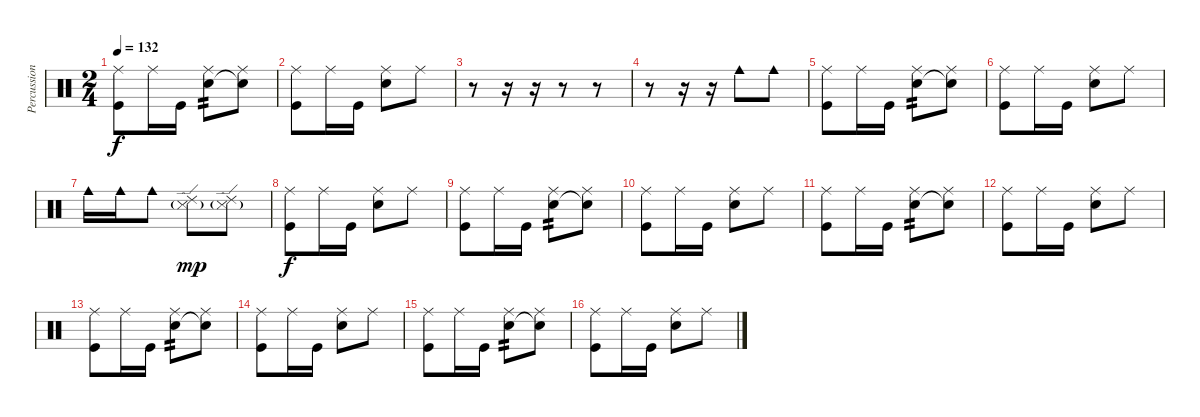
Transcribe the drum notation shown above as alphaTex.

\track ("Percussion" "Percussion") {instrument percussion}
\staff {score}
\articulation defaults
\ts (2 4)
\tempo 132
\clef neutral
\ks c
("Ride (middle)" "Kick (hit)").8{dy f} "Ride (middle)".16 "Kick (hit)".16 ("Ride (middle)" "Electric Snare (hit)").8{tp 2} ("Ride (middle)" "Snare (hit)"{t}).8 |
("Ride (middle)" "Kick (hit)").8 "Ride (middle)".16 "Kick (hit)".16 ("Ride (middle)" "Electric Snare (hit)").8 "Ride (middle)".8 |
r.8 r.16 r.16 r.8 r.8 |
r.8 r.16 r.16 "Cowbell medium (hit)".8 "Cowbell medium (hit)".8 |
("Ride (middle)" "Kick (hit)").8 "Ride (middle)".16 "Kick (hit)".16 ("Ride (middle)" "Electric Snare (hit)").8{tp 2} ("Ride (middle)" "Snare (hit)"{t}).8 |
("Ride (middle)" "Kick (hit)").8 "Ride (middle)".16 "Kick (hit)".16 ("Ride (middle)" "Electric Snare (hit)").8 "Ride (middle)".8 |
"Cowbell medium (hit)".16 "Cowbell medium (hit)".16 "Cowbell medium (hit)".8 ("Ride (edge) 2" "Snare (side stick) 3"{g}).8{dy mp} ("Ride (edge) 2" "Snare (side stick) 3"{g}).8 |
("Ride (middle)" "Kick (hit)").8{dy f} "Ride (middle)".16 "Kick (hit)".16 ("Ride (middle)" "Electric Snare (hit)").8 "Ride (middle)".8 |
("Ride (middle)" "Kick (hit)").8 "Ride (middle)".16 "Kick (hit)".16 ("Ride (middle)" "Electric Snare (hit)").8{tp 2} ("Ride (middle)" "Snare (hit)"{t}).8 |
("Ride (middle)" "Kick (hit)").8 "Ride (middle)".16 "Kick (hit)".16 ("Ride (middle)" "Electric Snare (hit)").8 "Ride (middle)".8 |
("Ride (middle)" "Kick (hit)").8 "Ride (middle)".16 "Kick (hit)".16 ("Ride (middle)" "Electric Snare (hit)").8{tp 2} ("Ride (middle)" "Snare (hit)"{t}).8 |
("Ride (middle)" "Kick (hit)").8 "Ride (middle)".16 "Kick (hit)".16 ("Ride (middle)" "Electric Snare (hit)").8 "Ride (middle)".8 |
("Ride (middle)" "Kick (hit)").8 "Ride (middle)".16 "Kick (hit)".16 ("Ride (middle)" "Electric Snare (hit)").8{tp 2} ("Ride (middle)" "Snare (hit)"{t}).8 |
("Ride (middle)" "Kick (hit)").8 "Ride (middle)".16 "Kick (hit)".16 ("Ride (middle)" "Electric Snare (hit)").8 "Ride (middle)".8 |
("Ride (middle)" "Kick (hit)").8 "Ride (middle)".16 "Kick (hit)".16 ("Ride (middle)" "Electric Snare (hit)").8{tp 2} ("Ride (middle)" "Snare (hit)"{t}).8 |
("Ride (middle)" "Kick (hit)").8 "Ride (middle)".16 "Kick (hit)".16 ("Ride (middle)" "Electric Snare (hit)").8 "Ride (middle)".8
